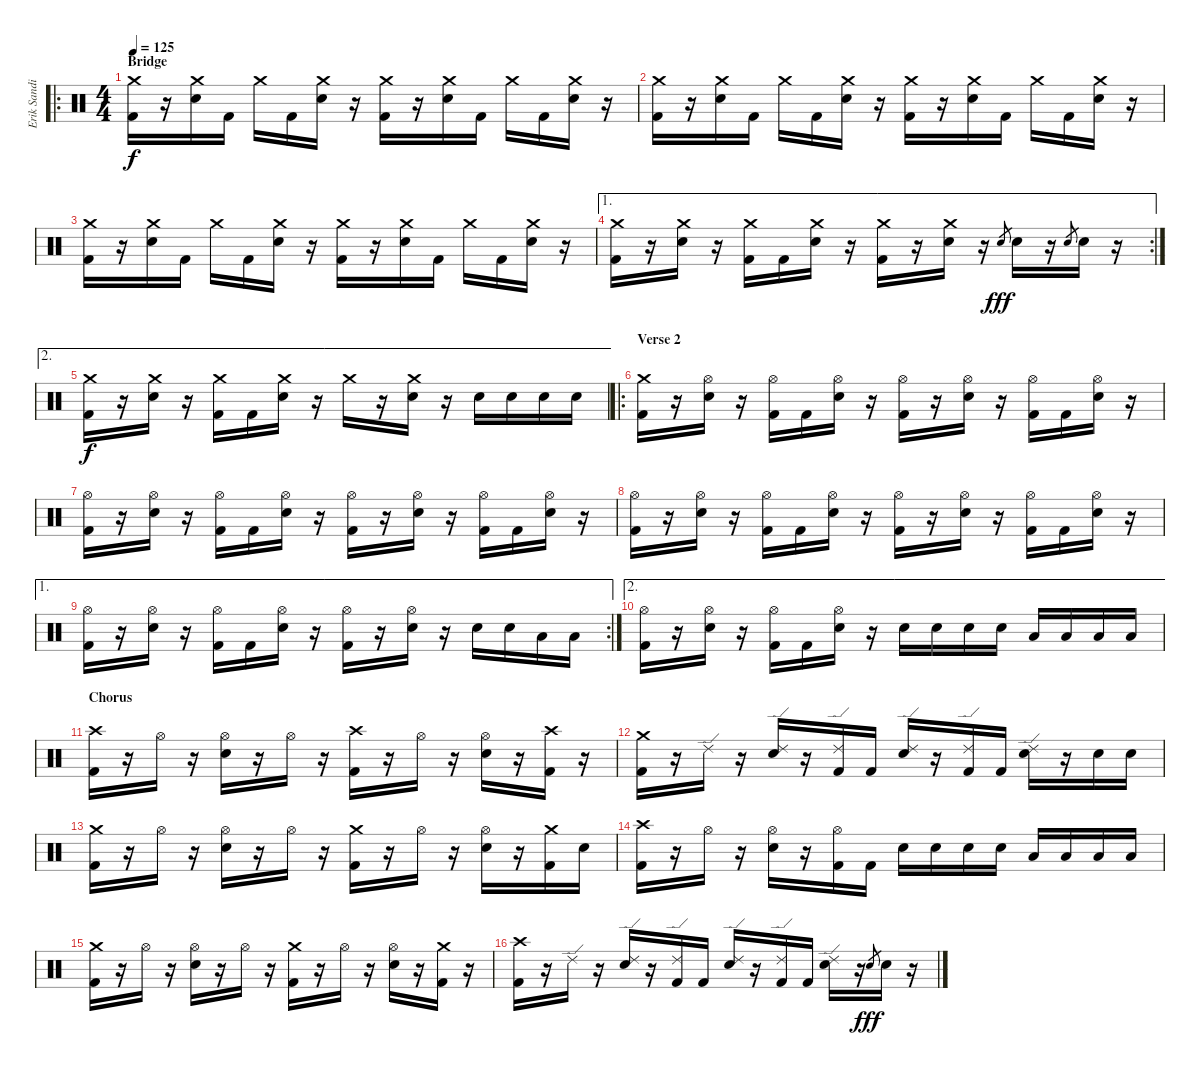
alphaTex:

\track ("Erik Sandin" "Erik Sandi") {instrument percussion}
\staff {score}
\articulation defaults
\ro
\ts (4 4)
\section ("" "Bridge")
\tempo 125
\clef neutral
\ks c
("Crash medium (hit)" "Kick (hit) 2").16{dy f} r.16 ("Crash medium (hit)" "Snare (hit) 2").16 "Kick (hit) 2".16 "Crash medium (hit)".16 "Kick (hit) 2".16 ("Crash medium (hit)" "Snare (hit) 2").16 r.16 ("Crash medium (hit)" "Kick (hit) 2").16 r.16 ("Crash medium (hit)" "Snare (hit) 2").16 "Kick (hit) 2".16 "Crash medium (hit)".16 "Kick (hit) 2".16 ("Crash medium (hit)" "Snare (hit) 2").16 r.16 |
("Crash medium (hit)" "Kick (hit) 2").16 r.16 ("Crash medium (hit)" "Snare (hit) 2").16 "Kick (hit) 2".16 "Crash medium (hit)".16 "Kick (hit) 2".16 ("Crash medium (hit)" "Snare (hit) 2").16 r.16 ("Crash medium (hit)" "Kick (hit) 2").16 r.16 ("Crash medium (hit)" "Snare (hit) 2").16 "Kick (hit) 2".16 "Crash medium (hit)".16 "Kick (hit) 2".16 ("Crash medium (hit)" "Snare (hit) 2").16 r.16 |
("Crash medium (hit)" "Kick (hit) 2").16 r.16 ("Crash medium (hit)" "Snare (hit) 2").16 "Kick (hit) 2".16 "Crash medium (hit)".16 "Kick (hit) 2".16 ("Crash medium (hit)" "Snare (hit) 2").16 r.16 ("Crash medium (hit)" "Kick (hit) 2").16 r.16 ("Crash medium (hit)" "Snare (hit) 2").16 "Kick (hit) 2".16 "Crash medium (hit)".16 "Kick (hit) 2".16 ("Crash medium (hit)" "Snare (hit) 2").16 r.16 |
\ae 1
\rc 2
("Crash medium (hit)" "Kick (hit) 2").16 r.16 ("Crash medium (hit)" "Snare (hit) 2").16 r.16 ("Crash medium (hit)" "Kick (hit) 2").16 "Kick (hit) 2".16 ("Crash medium (hit)" "Snare (hit) 2").16 r.16 ("Crash medium (hit)" "Kick (hit) 2").16 r.16 ("Crash medium (hit)" "Snare (hit) 2").16 r.16 "Snare (hit) 2".8{gr dy fff} "Snare (hit) 2".16 r.16 "Snare (hit) 2".8{gr} "Snare (hit) 2".16 r.16 |
\ae 2
("Crash medium (hit)" "Kick (hit) 2").16{dy f} r.16 ("Crash medium (hit)" "Snare (hit) 2").16 r.16 ("Crash medium (hit)" "Kick (hit) 2").16 "Kick (hit) 2".16 ("Crash medium (hit)" "Snare (hit) 2").16 r.16 "Crash medium (hit)".16 r.16 ("Crash medium (hit)" "Snare (hit) 2").16 r.16 "Snare (hit) 2".16 "Snare (hit) 2".16 "Snare (hit) 2".16 "Snare (hit) 2".16 |
\ro
\section ("" "Verse 2")
("Crash medium (hit)" "Kick (hit) 2").16 r.16 ("Hi-Hat (open)" "Snare (hit) 2").16 r.16 ("Hi-Hat (open)" "Kick (hit) 2").16 "Kick (hit) 2".16 ("Hi-Hat (open)" "Snare (hit) 2").16 r.16 ("Hi-Hat (open)" "Kick (hit) 2").16 r.16 ("Hi-Hat (open)" "Snare (hit) 2").16 r.16 ("Hi-Hat (open)" "Kick (hit) 2").16 "Kick (hit) 2".16 ("Hi-Hat (open)" "Snare (hit) 2").16 r.16 |
("Hi-Hat (open)" "Kick (hit) 2").16 r.16 ("Hi-Hat (open)" "Snare (hit) 2").16 r.16 ("Hi-Hat (open)" "Kick (hit) 2").16 "Kick (hit) 2".16 ("Hi-Hat (open)" "Snare (hit) 2").16 r.16 ("Hi-Hat (open)" "Kick (hit) 2").16 r.16 ("Hi-Hat (open)" "Snare (hit) 2").16 r.16 ("Hi-Hat (open)" "Kick (hit) 2").16 "Kick (hit) 2".16 ("Hi-Hat (open)" "Snare (hit) 2").16 r.16 |
("Hi-Hat (open)" "Kick (hit) 2").16 r.16 ("Hi-Hat (open)" "Snare (hit) 2").16 r.16 ("Hi-Hat (open)" "Kick (hit) 2").16 "Kick (hit) 2".16 ("Hi-Hat (open)" "Snare (hit) 2").16 r.16 ("Hi-Hat (open)" "Kick (hit) 2").16 r.16 ("Hi-Hat (open)" "Snare (hit) 2").16 r.16 ("Hi-Hat (open)" "Kick (hit) 2").16 "Kick (hit) 2".16 ("Hi-Hat (open)" "Snare (hit) 2").16 r.16 |
\ae 1
\rc 2
("Hi-Hat (open)" "Kick (hit) 2").16 r.16 ("Hi-Hat (open)" "Snare (hit) 2").16 r.16 ("Hi-Hat (open)" "Kick (hit) 2").16 "Kick (hit) 2".16 ("Hi-Hat (open)" "Snare (hit) 2").16 r.16 ("Hi-Hat (open)" "Kick (hit) 2").16 r.16 ("Hi-Hat (open)" "Snare (hit) 2").16 r.16 "Snare (hit) 2".16 "Snare (hit) 2".16 "Low Tom (hit)".16 "Low Tom (hit)".16 |
\ae 2
("Hi-Hat (open)" "Kick (hit) 2").16 r.16 ("Hi-Hat (open)" "Snare (hit) 2").16 r.16 ("Hi-Hat (open)" "Kick (hit) 2").16 "Kick (hit) 2".16 ("Hi-Hat (open)" "Snare (hit) 2").16 r.16 "Snare (hit) 2".16 "Snare (hit) 2".16 "Snare (hit) 2".16 "Snare (hit) 2".16 "Low Tom (hit)".16 "Low Tom (hit)".16 "Low Floor Tom (hit)".16 "Low Floor Tom (hit)".16 |
\section ("" "Chorus")
("Crash high (hit)" "Kick (hit) 2").16 r.16 "Hi-Hat (open)".16 r.16 ("Hi-Hat (open)" "Snare (hit) 2").16 r.16 "Hi-Hat (open)".16 r.16 ("Crash high (hit)" "Kick (hit) 2").16 r.16 "Hi-Hat (open)".16 r.16 ("Hi-Hat (open)" "Snare (hit) 2").16 r.16 ("Crash high (hit)" "Kick (hit) 2").16 r.16 |
("Crash medium (hit)" "Kick (hit) 2").16 r.16 "Ride (edge) 2".16 r.16 ("Ride (edge) 2" "Snare (hit) 2").16 r.16 ("Ride (edge) 2" "Kick (hit) 2").16 "Kick (hit) 2".16 ("Ride (edge) 2" "Snare (hit) 2").16 r.16 ("Ride (edge) 2" "Kick (hit) 2").16 "Kick (hit) 2".16 ("Ride (edge) 2" "Snare (hit) 2").16 r.16 "Snare (hit) 2".16 "Snare (hit) 2".16 |
("Crash medium (hit)" "Kick (hit) 2").16 r.16 "Hi-Hat (open)".16 r.16 ("Hi-Hat (open)" "Snare (hit) 2").16 r.16 "Hi-Hat (open)".16 r.16 ("Crash medium (hit)" "Kick (hit) 2").16 r.16 "Hi-Hat (open)".16 r.16 ("Hi-Hat (open)" "Snare (hit) 2").16 r.16 ("Crash medium (hit)" "Kick (hit) 2").16 "Snare (hit) 2".16 |
("Crash high (hit)" "Kick (hit) 2").16 r.16 "Hi-Hat (open)".16 r.16 ("Hi-Hat (open)" "Snare (hit) 2").16 r.16 ("Hi-Hat (open)" "Kick (hit) 2").16 "Kick (hit) 2".16 "Snare (hit) 2".16 "Snare (hit) 2".16 "Snare (hit) 2".16 "Snare (hit) 2".16 "Low Tom (hit)".16 "Low Tom (hit)".16 "Low Floor Tom (hit)".16 "Low Floor Tom (hit)".16 |
("Crash medium (hit)" "Kick (hit) 2").16 r.16 "Hi-Hat (open)".16 r.16 ("Hi-Hat (open)" "Snare (hit) 2").16 r.16 "Hi-Hat (open)".16 r.16 ("Crash medium (hit)" "Kick (hit) 2").16 r.16 "Hi-Hat (open)".16 r.16 ("Hi-Hat (open)" "Snare (hit) 2").16 r.16 ("Crash medium (hit)" "Kick (hit) 2").16 r.16 |
("Crash high (hit)" "Kick (hit) 2").16 r.16 "Ride (edge) 2".16 r.16 ("Ride (edge) 2" "Snare (hit) 2").16 r.16 ("Ride (edge) 2" "Kick (hit) 2").16 "Kick (hit) 2".16 ("Ride (edge) 2" "Snare (hit) 2").16 r.16 ("Ride (edge) 2" "Kick (hit) 2").16 "Kick (hit) 2".16 ("Ride (edge) 2" "Snare (hit) 2").16 r.16 "Snare (hit) 2".8{gr dy fff} "Snare (hit) 2".16 r.16
